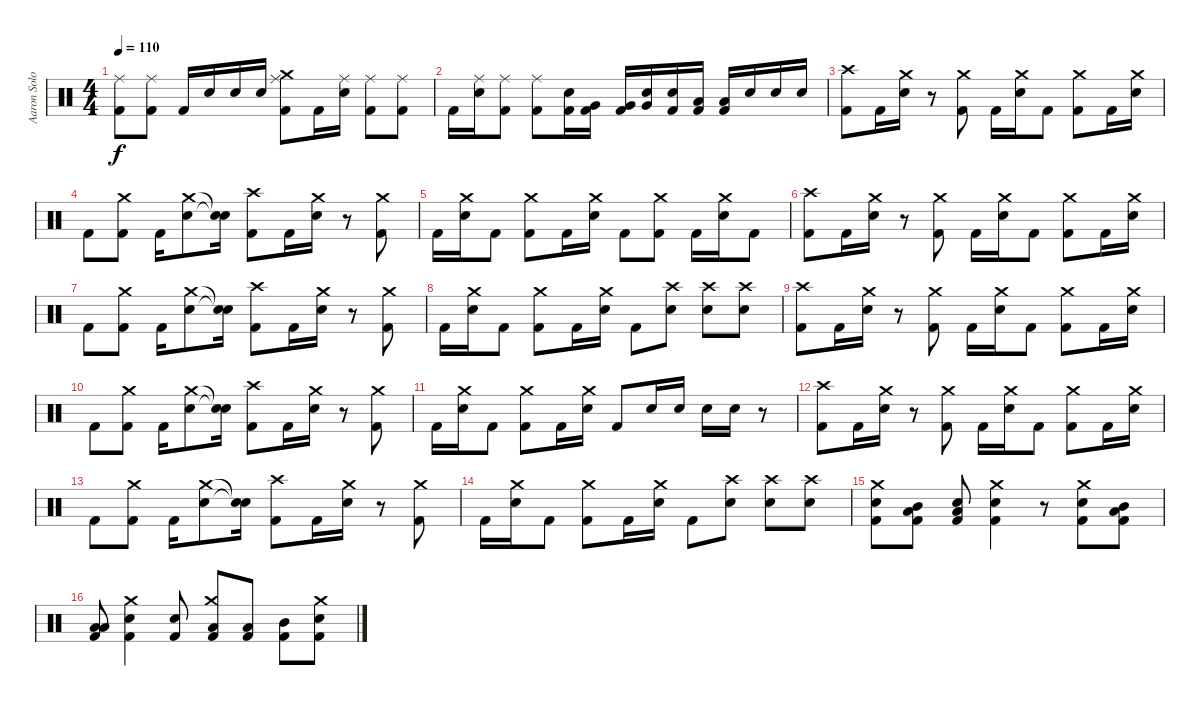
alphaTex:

\track ("Aaron Solowoniuk - Drum" "Aaron Solo") {instrument percussion}
\staff {score}
\articulation defaults
\ts (4 4)
\tempo 110
\clef neutral
\ks c
("Ride (middle)" "Kick (hit) 2").8{dy f} ("Ride (middle)" "Kick (hit) 2").8 "Kick (hit) 2".16 "Electric Snare (hit)".16 "Electric Snare (hit)".16 "Electric Snare (hit)".16 ("Crash medium (hit)" "Ride (middle)" "Kick (hit) 2").8 "Kick (hit) 2".16 ("Ride (middle)" "Electric Snare (hit)").16 ("Ride (middle)" "Kick (hit) 2").8 ("Ride (middle)" "Kick (hit) 2").8 |
"Kick (hit) 2".16 ("Ride (middle)" "Electric Snare (hit)").16 ("Ride (middle)" "Kick (hit) 2").8 ("Ride (middle)" "Kick (hit) 2").8 ("Electric Snare (hit)" "Kick (hit) 2").16 ("Very Low Tom (hit)" "Kick (hit) 2").16 ("Very Low Tom (hit)" "Kick (hit) 2").16 ("Very Low Tom (hit)" "Electric Snare (hit)").16 ("Electric Snare (hit)" "Kick (hit) 2").16 ("Low Tom (hit)" "Kick (hit) 2").16 ("Low Tom (hit)" "Kick (hit) 2").16 "Electric Snare (hit)".16 "Electric Snare (hit)".16 "Electric Snare (hit)".16 |
("Crash high (hit)" "Kick (hit) 2").8 "Kick (hit) 2".16 ("Crash medium (hit)" "Electric Snare (hit)").16 r.8 ("Crash medium (hit)" "Kick (hit) 2").8 "Kick (hit) 2".16 ("Crash medium (hit)" "Electric Snare (hit)").16 "Kick (hit) 2".8 ("Crash medium (hit)" "Kick (hit) 2").8 "Kick (hit) 2".16 ("Crash medium (hit)" "Electric Snare (hit)").16 |
"Kick (hit) 2".8 ("Crash medium (hit)" "Kick (hit) 2").8 "Kick (hit) 2".16 ("Crash medium (hit)" "Electric Snare (hit)").8 ("Snare (hit)"{t} "Snare (hit)"{t}).16 ("Crash high (hit)" "Kick (hit) 2").8 "Kick (hit) 2".16 ("Crash medium (hit)" "Electric Snare (hit)").16 r.8 ("Crash medium (hit)" "Kick (hit) 2").8 |
"Kick (hit) 2".16 ("Crash medium (hit)" "Electric Snare (hit)").16 "Kick (hit) 2".8 ("Crash medium (hit)" "Kick (hit) 2").8 "Kick (hit) 2".16 ("Crash medium (hit)" "Electric Snare (hit)").16 "Kick (hit) 2".8 ("Crash medium (hit)" "Kick (hit) 2").8 "Kick (hit) 2".16 ("Crash medium (hit)" "Electric Snare (hit)").16 "Kick (hit) 2".8 |
("Crash high (hit)" "Kick (hit) 2").8 "Kick (hit) 2".16 ("Crash medium (hit)" "Electric Snare (hit)").16 r.8 ("Crash medium (hit)" "Kick (hit) 2").8 "Kick (hit) 2".16 ("Crash medium (hit)" "Electric Snare (hit)").16 "Kick (hit) 2".8 ("Crash medium (hit)" "Kick (hit) 2").8 "Kick (hit) 2".16 ("Crash medium (hit)" "Electric Snare (hit)").16 |
"Kick (hit) 2".8 ("Crash medium (hit)" "Kick (hit) 2").8 "Kick (hit) 2".16 ("Crash medium (hit)" "Electric Snare (hit)").8 ("Snare (hit)"{t} "Snare (hit)"{t}).16 ("Crash high (hit)" "Kick (hit) 2").8 "Kick (hit) 2".16 ("Crash medium (hit)" "Electric Snare (hit)").16 r.8 ("Crash medium (hit)" "Kick (hit) 2").8 |
"Kick (hit) 2".16 ("Crash medium (hit)" "Electric Snare (hit)").16 "Kick (hit) 2".8 ("Crash medium (hit)" "Kick (hit) 2").8 "Kick (hit) 2".16 ("Crash medium (hit)" "Electric Snare (hit)").16 "Kick (hit) 2".8 ("Crash high (hit)" "Electric Snare (hit)").8 ("Crash high (hit)" "Electric Snare (hit)").8 ("Crash high (hit)" "Electric Snare (hit)").8 |
("Crash high (hit)" "Kick (hit) 2").8 "Kick (hit) 2".16 ("Crash medium (hit)" "Electric Snare (hit)").16 r.8 ("Crash medium (hit)" "Kick (hit) 2").8 "Kick (hit) 2".16 ("Crash medium (hit)" "Electric Snare (hit)").16 "Kick (hit) 2".8 ("Crash medium (hit)" "Kick (hit) 2").8 "Kick (hit) 2".16 ("Crash medium (hit)" "Electric Snare (hit)").16 |
"Kick (hit) 2".8 ("Crash medium (hit)" "Kick (hit) 2").8 "Kick (hit) 2".16 ("Crash medium (hit)" "Electric Snare (hit)").8 ("Snare (hit)"{t} "Snare (hit)"{t}).16 ("Crash high (hit)" "Kick (hit) 2").8 "Kick (hit) 2".16 ("Crash medium (hit)" "Electric Snare (hit)").16 r.8 ("Crash medium (hit)" "Kick (hit) 2").8 |
"Kick (hit) 2".16 ("Crash medium (hit)" "Electric Snare (hit)").16 "Kick (hit) 2".8 ("Crash medium (hit)" "Kick (hit) 2").8 "Kick (hit) 2".16 ("Crash medium (hit)" "Electric Snare (hit)").16 "Kick (hit) 2".8 "Electric Snare (hit)".16 "Electric Snare (hit)".16 "Electric Snare (hit)".16 "Electric Snare (hit)".16 r.8 |
("Crash high (hit)" "Kick (hit) 2").8 "Kick (hit) 2".16 ("Crash medium (hit)" "Electric Snare (hit)").16 r.8 ("Crash medium (hit)" "Kick (hit) 2").8 "Kick (hit) 2".16 ("Crash medium (hit)" "Electric Snare (hit)").16 "Kick (hit) 2".8 ("Crash medium (hit)" "Kick (hit) 2").8 "Kick (hit) 2".16 ("Crash medium (hit)" "Electric Snare (hit)").16 |
"Kick (hit) 2".8 ("Crash medium (hit)" "Kick (hit) 2").8 "Kick (hit) 2".16 ("Crash medium (hit)" "Electric Snare (hit)").8 ("Snare (hit)"{t} "Snare (hit)"{t}).16 ("Crash high (hit)" "Kick (hit) 2").8 "Kick (hit) 2".16 ("Crash medium (hit)" "Electric Snare (hit)").16 r.8 ("Crash medium (hit)" "Kick (hit) 2").8 |
"Kick (hit) 2".16 ("Crash medium (hit)" "Electric Snare (hit)").16 "Kick (hit) 2".8 ("Crash medium (hit)" "Kick (hit) 2").8 "Kick (hit) 2".16 ("Crash medium (hit)" "Electric Snare (hit)").16 "Kick (hit) 2".8 ("Crash high (hit)" "Electric Snare (hit)").8 ("Crash high (hit)" "Electric Snare (hit)").8 ("Crash high (hit)" "Electric Snare (hit)").8 |
("Crash medium (hit)" "Electric Snare (hit)" "Kick (hit) 2").8 ("Mid Tom (hit)" "Low Tom (hit)" "Kick (hit) 2").8 ("Low Tom (hit)" "Electric Snare (hit)" "Kick (hit) 2").8 ("Crash medium (hit)" "Electric Snare (hit)" "Kick (hit) 2").4 r.8 ("Crash medium (hit)" "Electric Snare (hit)" "Kick (hit) 2").8 ("Mid Tom (hit)" "Low Tom (hit)" "Kick (hit) 2").8 |
("Low Tom (hit)" "Low Tom (hit)" "Kick (hit) 2").8 ("Crash medium (hit)" "Electric Snare (hit)" "Kick (hit) 2").4 ("Electric Snare (hit)" "Kick (hit) 2").8 ("Crash medium (hit)" "Low Tom (hit)" "Kick (hit) 2").8 ("Low Tom (hit)" "Kick (hit) 2").8 ("Mid Tom (hit)" "Kick (hit) 2").8 ("Crash medium (hit)" "Electric Snare (hit)" "Kick (hit) 2").8
